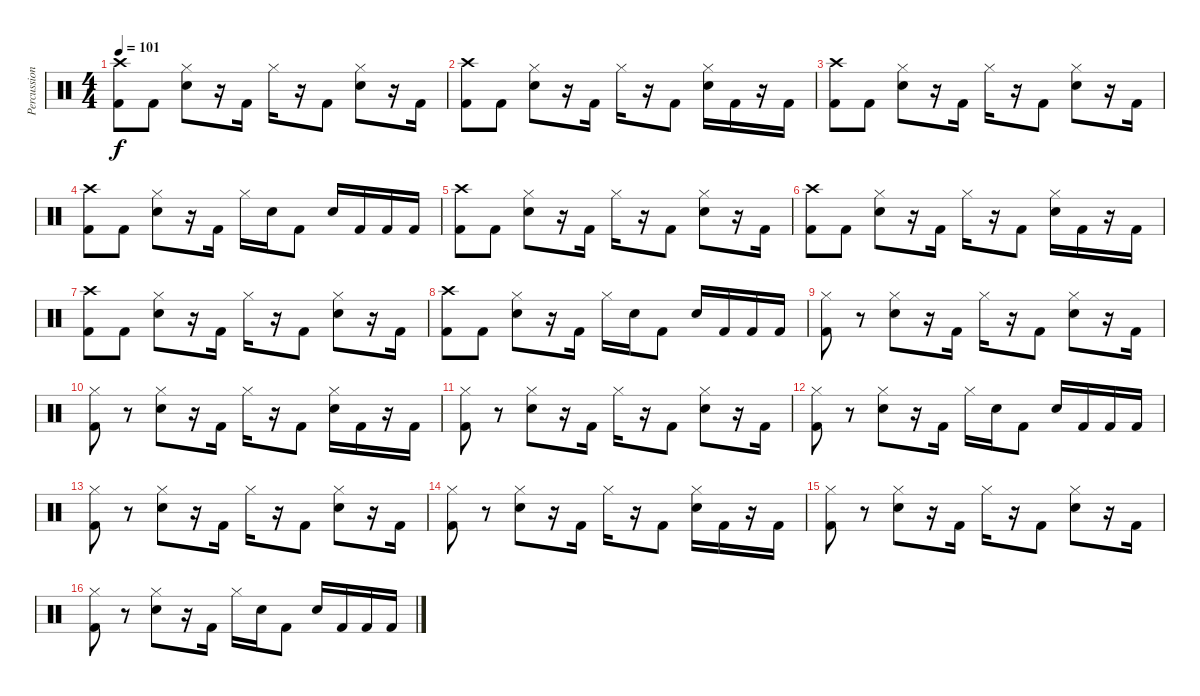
\track ("Percussions" "Percussion") {instrument percussion}
\staff {score}
\articulation defaults
\ts (4 4)
\tempo 101
\clef neutral
\ks c
("Crash high (hit)" "Kick (hit) 2").8{dy f} "Kick (hit) 2".8 ("Snare (hit) 2" "Hi-Hat (closed)").8 r.16 "Kick (hit) 2".16 "Hi-Hat (closed)".16 r.16 "Kick (hit) 2".8 ("Snare (hit) 2" "Hi-Hat (closed)").8 r.16 "Kick (hit) 2".16 |
("Crash high (hit)" "Kick (hit) 2").8 "Kick (hit) 2".8 ("Snare (hit) 2" "Hi-Hat (closed)").8 r.16 "Kick (hit) 2".16 "Hi-Hat (closed)".16 r.16 "Kick (hit) 2".8 ("Snare (hit) 2" "Hi-Hat (closed)").16 "Kick (hit) 2".16 r.16 "Kick (hit) 2".16 |
("Crash high (hit)" "Kick (hit) 2").8 "Kick (hit) 2".8 ("Snare (hit) 2" "Hi-Hat (closed)").8 r.16 "Kick (hit) 2".16 "Hi-Hat (closed)".16 r.16 "Kick (hit) 2".8 ("Snare (hit) 2" "Hi-Hat (closed)").8 r.16 "Kick (hit) 2".16 |
("Crash high (hit)" "Kick (hit) 2").8 "Kick (hit) 2".8 ("Snare (hit) 2" "Hi-Hat (closed)").8 r.16 "Kick (hit) 2".16 "Hi-Hat (closed)".16 "Snare (hit) 2".16 "Kick (hit) 2".8 "Snare (hit) 2".16 "Kick (hit) 2".16 "Kick (hit) 2".16 "Kick (hit) 2".16 |
("Crash high (hit)" "Kick (hit) 2").8 "Kick (hit) 2".8 ("Snare (hit) 2" "Hi-Hat (closed)").8 r.16 "Kick (hit) 2".16 "Hi-Hat (closed)".16 r.16 "Kick (hit) 2".8 ("Snare (hit) 2" "Hi-Hat (closed)").8 r.16 "Kick (hit) 2".16 |
("Crash high (hit)" "Kick (hit) 2").8 "Kick (hit) 2".8 ("Snare (hit) 2" "Hi-Hat (closed)").8 r.16 "Kick (hit) 2".16 "Hi-Hat (closed)".16 r.16 "Kick (hit) 2".8 ("Snare (hit) 2" "Hi-Hat (closed)").16 "Kick (hit) 2".16 r.16 "Kick (hit) 2".16 |
("Crash high (hit)" "Kick (hit) 2").8 "Kick (hit) 2".8 ("Snare (hit) 2" "Hi-Hat (closed)").8 r.16 "Kick (hit) 2".16 "Hi-Hat (closed)".16 r.16 "Kick (hit) 2".8 ("Snare (hit) 2" "Hi-Hat (closed)").8 r.16 "Kick (hit) 2".16 |
("Crash high (hit)" "Kick (hit) 2").8 "Kick (hit) 2".8 ("Snare (hit) 2" "Hi-Hat (closed)").8 r.16 "Kick (hit) 2".16 "Hi-Hat (closed)".16 "Snare (hit) 2".16 "Kick (hit) 2".8 "Snare (hit) 2".16 "Kick (hit) 2".16 "Kick (hit) 2".16 "Kick (hit) 2".16 |
("Hi-Hat (closed)" "Kick (hit) 2").8 r.8 ("Snare (hit) 2" "Hi-Hat (closed)").8 r.16 "Kick (hit) 2".16 "Hi-Hat (closed)".16 r.16 "Kick (hit) 2".8 ("Snare (hit) 2" "Hi-Hat (closed)").8 r.16 "Kick (hit) 2".16 |
("Hi-Hat (closed)" "Kick (hit) 2").8 r.8 ("Snare (hit) 2" "Hi-Hat (closed)").8 r.16 "Kick (hit) 2".16 "Hi-Hat (closed)".16 r.16 "Kick (hit) 2".8 ("Snare (hit) 2" "Hi-Hat (closed)").16 "Kick (hit) 2".16 r.16 "Kick (hit) 2".16 |
("Hi-Hat (closed)" "Kick (hit) 2").8 r.8 ("Snare (hit) 2" "Hi-Hat (closed)").8 r.16 "Kick (hit) 2".16 "Hi-Hat (closed)".16 r.16 "Kick (hit) 2".8 ("Snare (hit) 2" "Hi-Hat (closed)").8 r.16 "Kick (hit) 2".16 |
("Hi-Hat (closed)" "Kick (hit) 2").8 r.8 ("Snare (hit) 2" "Hi-Hat (closed)").8 r.16 "Kick (hit) 2".16 "Hi-Hat (closed)".16 "Snare (hit) 2".16 "Kick (hit) 2".8 "Snare (hit) 2".16 "Kick (hit) 2".16 "Kick (hit) 2".16 "Kick (hit) 2".16 |
("Hi-Hat (closed)" "Kick (hit) 2").8 r.8 ("Snare (hit) 2" "Hi-Hat (closed)").8 r.16 "Kick (hit) 2".16 "Hi-Hat (closed)".16 r.16 "Kick (hit) 2".8 ("Snare (hit) 2" "Hi-Hat (closed)").8 r.16 "Kick (hit) 2".16 |
("Hi-Hat (closed)" "Kick (hit) 2").8 r.8 ("Snare (hit) 2" "Hi-Hat (closed)").8 r.16 "Kick (hit) 2".16 "Hi-Hat (closed)".16 r.16 "Kick (hit) 2".8 ("Snare (hit) 2" "Hi-Hat (closed)").16 "Kick (hit) 2".16 r.16 "Kick (hit) 2".16 |
("Hi-Hat (closed)" "Kick (hit) 2").8 r.8 ("Snare (hit) 2" "Hi-Hat (closed)").8 r.16 "Kick (hit) 2".16 "Hi-Hat (closed)".16 r.16 "Kick (hit) 2".8 ("Snare (hit) 2" "Hi-Hat (closed)").8 r.16 "Kick (hit) 2".16 |
("Hi-Hat (closed)" "Kick (hit) 2").8 r.8 ("Snare (hit) 2" "Hi-Hat (closed)").8 r.16 "Kick (hit) 2".16 "Hi-Hat (closed)".16 "Snare (hit) 2".16 "Kick (hit) 2".8 "Snare (hit) 2".16 "Kick (hit) 2".16 "Kick (hit) 2".16 "Kick (hit) 2".16
